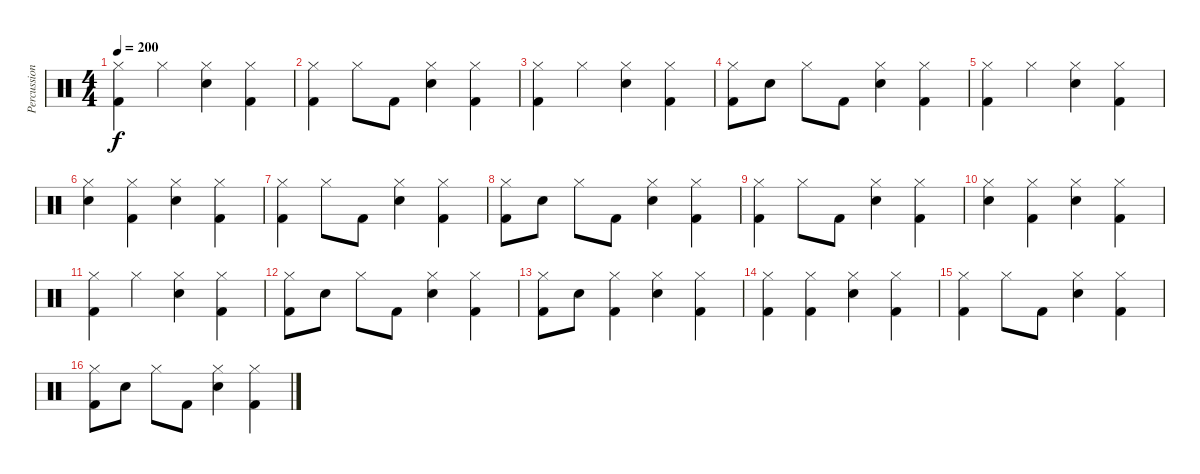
\track ("Percussion" "Percussion") {instrument percussion}
\staff {score}
\articulation defaults
\ts (4 4)
\tempo 200
\clef neutral
\ks c
("Kick (hit) 2" "Hi-Hat (closed)").4{dy f} "Hi-Hat (closed)".4 ("Snare (hit) 2" "Hi-Hat (closed)").4 ("Kick (hit) 2" "Hi-Hat (closed)").4 |
("Kick (hit) 2" "Hi-Hat (closed)").4 "Hi-Hat (closed)".8 "Kick (hit) 2".8 ("Snare (hit) 2" "Hi-Hat (closed)").4 ("Kick (hit) 2" "Hi-Hat (closed)").4 |
("Kick (hit) 2" "Hi-Hat (closed)").4 "Hi-Hat (closed)".4 ("Snare (hit) 2" "Hi-Hat (closed)").4 ("Kick (hit) 2" "Hi-Hat (closed)").4 |
("Kick (hit) 2" "Hi-Hat (closed)").8 "Snare (hit) 2".8 "Hi-Hat (closed)".8 "Kick (hit) 2".8 ("Snare (hit) 2" "Hi-Hat (closed)").4 ("Kick (hit) 2" "Hi-Hat (closed)").4 |
("Kick (hit) 2" "Hi-Hat (closed)").4 "Hi-Hat (closed)".4 ("Snare (hit) 2" "Hi-Hat (closed)").4 ("Kick (hit) 2" "Hi-Hat (closed)").4 |
("Snare (hit) 2" "Hi-Hat (closed)").4 ("Kick (hit) 2" "Hi-Hat (closed)").4 ("Snare (hit) 2" "Hi-Hat (closed)").4 ("Kick (hit) 2" "Hi-Hat (closed)").4 |
("Kick (hit) 2" "Hi-Hat (closed)").4 "Hi-Hat (closed)".8 "Kick (hit) 2".8 ("Snare (hit) 2" "Hi-Hat (closed)").4 ("Kick (hit) 2" "Hi-Hat (closed)").4 |
("Kick (hit) 2" "Hi-Hat (closed)").8 "Snare (hit) 2".8 "Hi-Hat (closed)".8 "Kick (hit) 2".8 ("Snare (hit) 2" "Hi-Hat (closed)").4 ("Kick (hit) 2" "Hi-Hat (closed)").4 |
("Kick (hit) 2" "Hi-Hat (closed)").4 "Hi-Hat (closed)".8 "Kick (hit) 2".8 ("Snare (hit) 2" "Hi-Hat (closed)").4 ("Kick (hit) 2" "Hi-Hat (closed)").4 |
("Snare (hit) 2" "Hi-Hat (closed)").4 ("Kick (hit) 2" "Hi-Hat (closed)").4 ("Snare (hit) 2" "Hi-Hat (closed)").4 ("Kick (hit) 2" "Hi-Hat (closed)").4 |
("Kick (hit) 2" "Hi-Hat (closed)").4 "Hi-Hat (closed)".4 ("Snare (hit) 2" "Hi-Hat (closed)").4 ("Kick (hit) 2" "Hi-Hat (closed)").4 |
("Kick (hit) 2" "Hi-Hat (closed)").8 "Snare (hit) 2".8 "Hi-Hat (closed)".8 "Kick (hit) 2".8 ("Snare (hit) 2" "Hi-Hat (closed)").4 ("Kick (hit) 2" "Hi-Hat (closed)").4 |
("Kick (hit) 2" "Hi-Hat (closed)").8 "Snare (hit) 2".8 ("Kick (hit) 2" "Hi-Hat (closed)").4 ("Snare (hit) 2" "Hi-Hat (closed)").4 ("Kick (hit) 2" "Hi-Hat (closed)").4 |
("Kick (hit) 2" "Hi-Hat (closed)").4 ("Kick (hit) 2" "Hi-Hat (closed)").4 ("Snare (hit) 2" "Hi-Hat (closed)").4 ("Kick (hit) 2" "Hi-Hat (closed)").4 |
("Kick (hit) 2" "Hi-Hat (closed)").4 "Hi-Hat (closed)".8 "Kick (hit) 2".8 ("Snare (hit) 2" "Hi-Hat (closed)").4 ("Kick (hit) 2" "Hi-Hat (closed)").4 |
("Kick (hit) 2" "Hi-Hat (closed)").8 "Snare (hit) 2".8 "Hi-Hat (closed)".8 "Kick (hit) 2".8 ("Snare (hit) 2" "Hi-Hat (closed)").4 ("Kick (hit) 2" "Hi-Hat (closed)").4
